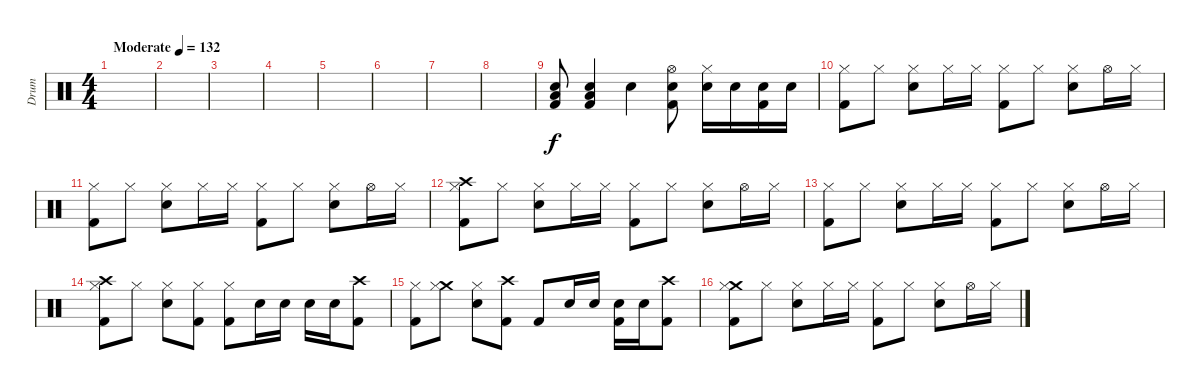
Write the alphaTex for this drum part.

\track ("Drum" "Drum") {instrument percussion}
\staff {score}
\articulation defaults
\ts (4 4)
\tempo (132 "Moderate")
\clef neutral
\ks c
|
|
|
|
|
|
|
|
("Snare (hit) 2" "Low Tom (hit)" "Kick (hit) 2").8 ("Snare (hit) 2" "Low Tom (hit)" "Kick (hit) 2").4 "Snare (hit) 2".4 ("Hi-Hat (open)" "Snare (hit) 2" "Kick (hit) 2").8 ("Hi-Hat (closed)" "Snare (hit) 2").16 "Snare (hit) 2".16 ("Snare (hit) 2" "Kick (hit) 2").16 "Snare (hit) 2".16 |
("Hi-Hat (closed)" "Kick (hit) 2").8 "Hi-Hat (closed)".8 ("Hi-Hat (closed)" "Snare (hit) 2").8 "Hi-Hat (closed)".16 "Hi-Hat (closed)".16 ("Hi-Hat (closed)" "Kick (hit) 2").8 "Hi-Hat (closed)".8 ("Hi-Hat (closed)" "Snare (hit) 2").8 "Hi-Hat (open)".16 "Hi-Hat (closed)".16 |
("Hi-Hat (closed)" "Kick (hit) 2").8 "Hi-Hat (closed)".8 ("Hi-Hat (closed)" "Snare (hit) 2").8 "Hi-Hat (closed)".16 "Hi-Hat (closed)".16 ("Hi-Hat (closed)" "Kick (hit) 2").8 "Hi-Hat (closed)".8 ("Hi-Hat (closed)" "Snare (hit) 2").8 "Hi-Hat (open)".16 "Hi-Hat (closed)".16 |
("Crash high (hit)" "Hi-Hat (closed)" "Kick (hit) 2").8 "Hi-Hat (closed)".8 ("Hi-Hat (closed)" "Snare (hit) 2").8 "Hi-Hat (closed)".16 "Hi-Hat (closed)".16 ("Hi-Hat (closed)" "Kick (hit) 2").8 "Hi-Hat (closed)".8 ("Hi-Hat (closed)" "Snare (hit) 2").8 "Hi-Hat (open)".16 "Hi-Hat (closed)".16 |
("Hi-Hat (closed)" "Kick (hit) 2").8 "Hi-Hat (closed)".8 ("Hi-Hat (closed)" "Snare (hit) 2").8 "Hi-Hat (closed)".16 "Hi-Hat (closed)".16 ("Hi-Hat (closed)" "Kick (hit) 2").8 "Hi-Hat (closed)".8 ("Hi-Hat (closed)" "Snare (hit) 2").8 "Hi-Hat (open)".16 "Hi-Hat (closed)".16 |
("Crash high (hit)" "Hi-Hat (closed)" "Kick (hit) 2").8 "Hi-Hat (closed)".8 ("Hi-Hat (closed)" "Snare (hit) 2").8 ("Hi-Hat (closed)" "Kick (hit) 2").8 ("Hi-Hat (closed)" "Kick (hit) 2").8 "Snare (hit) 2".16 "Snare (hit) 2".16 "Snare (hit) 2".16 "Snare (hit) 2".16 ("Crash high (hit)" "Kick (hit) 2").8 |
("Hi-Hat (closed)" "Kick (hit) 2").8 ("Crash medium (hit)" "Hi-Hat (closed)").8 ("Hi-Hat (closed)" "Snare (hit) 2").8 ("Crash high (hit)" "Kick (hit) 2").8 "Kick (hit) 2".8 "Snare (hit) 2".16 "Snare (hit) 2".16 ("Snare (hit) 2" "Kick (hit) 2").16 "Snare (hit) 2".16 ("Crash high (hit)" "Kick (hit) 2").8 |
("Crash medium (hit)" "Hi-Hat (closed)" "Kick (hit) 2").8 "Hi-Hat (closed)".8 ("Hi-Hat (closed)" "Snare (hit) 2").8 "Hi-Hat (closed)".16 "Hi-Hat (closed)".16 ("Hi-Hat (closed)" "Kick (hit) 2").8 "Hi-Hat (closed)".8 ("Hi-Hat (closed)" "Snare (hit) 2").8 "Hi-Hat (open)".16 "Hi-Hat (closed)".16
